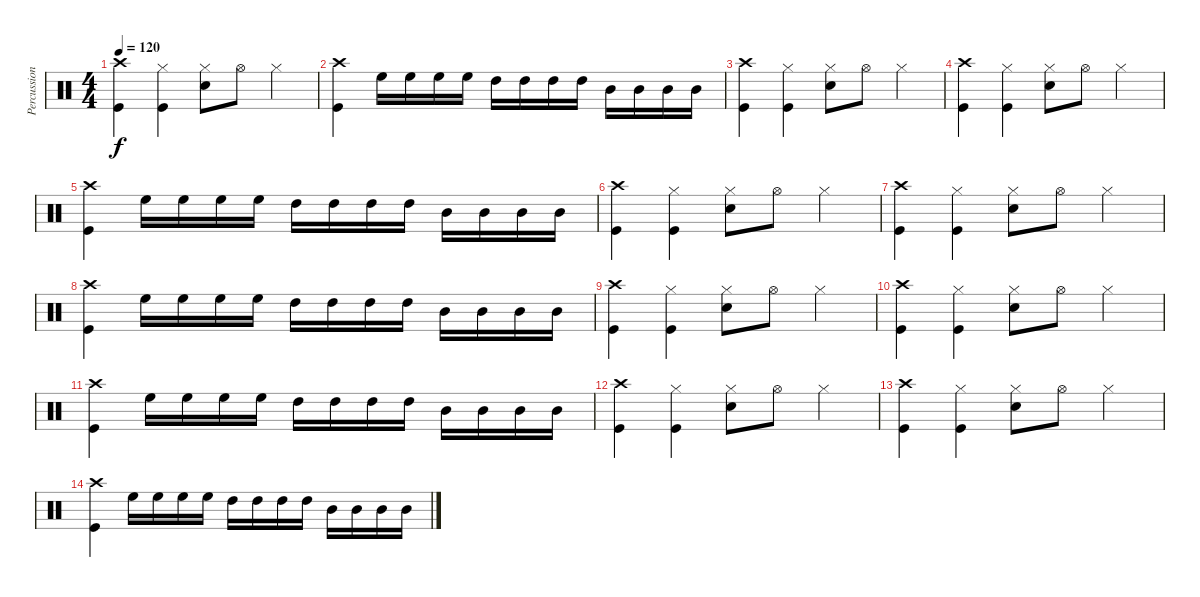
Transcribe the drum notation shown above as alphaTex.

\track ("Percussion" "Percussion") {instrument percussion}
\staff {score}
\articulation defaults
\ts (4 4)
\tempo 120
\clef neutral
\ks c
("Crash high (hit)" "Kick (hit)").4{dy f} ("Hi-Hat (closed)" "Kick (hit)").4 ("Hi-Hat (closed)" "Snare (hit) 2").8 "Hi-Hat (open)".8 "Hi-Hat (closed)".4 |
("Crash high (hit)" "Kick (hit)").4 "High Floor Tom (hit)".16 "High Floor Tom (hit)".16 "High Floor Tom (hit)".16 "High Floor Tom (hit)".16 "High Tom (hit)".16 "High Tom (hit)".16 "High Tom (hit)".16 "High Tom (hit)".16 "Mid Tom (hit)".16 "Mid Tom (hit)".16 "Mid Tom (hit)".16 "Mid Tom (hit)".16 |
("Crash high (hit)" "Kick (hit)").4 ("Hi-Hat (closed)" "Kick (hit)").4 ("Hi-Hat (closed)" "Snare (hit) 2").8 "Hi-Hat (open)".8 "Hi-Hat (closed)".4 |
("Crash high (hit)" "Kick (hit)").4 ("Hi-Hat (closed)" "Kick (hit)").4 ("Hi-Hat (closed)" "Snare (hit) 2").8 "Hi-Hat (open)".8 "Hi-Hat (closed)".4 |
("Crash high (hit)" "Kick (hit)").4 "High Floor Tom (hit)".16 "High Floor Tom (hit)".16 "High Floor Tom (hit)".16 "High Floor Tom (hit)".16 "High Tom (hit)".16 "High Tom (hit)".16 "High Tom (hit)".16 "High Tom (hit)".16 "Mid Tom (hit)".16 "Mid Tom (hit)".16 "Mid Tom (hit)".16 "Mid Tom (hit)".16 |
("Crash high (hit)" "Kick (hit)").4 ("Hi-Hat (closed)" "Kick (hit)").4 ("Hi-Hat (closed)" "Snare (hit) 2").8 "Hi-Hat (open)".8 "Hi-Hat (closed)".4 |
("Crash high (hit)" "Kick (hit)").4 ("Hi-Hat (closed)" "Kick (hit)").4 ("Hi-Hat (closed)" "Snare (hit) 2").8 "Hi-Hat (open)".8 "Hi-Hat (closed)".4 |
("Crash high (hit)" "Kick (hit)").4 "High Floor Tom (hit)".16 "High Floor Tom (hit)".16 "High Floor Tom (hit)".16 "High Floor Tom (hit)".16 "High Tom (hit)".16 "High Tom (hit)".16 "High Tom (hit)".16 "High Tom (hit)".16 "Mid Tom (hit)".16 "Mid Tom (hit)".16 "Mid Tom (hit)".16 "Mid Tom (hit)".16 |
("Crash high (hit)" "Kick (hit)").4 ("Hi-Hat (closed)" "Kick (hit)").4 ("Hi-Hat (closed)" "Snare (hit) 2").8 "Hi-Hat (open)".8 "Hi-Hat (closed)".4 |
("Crash high (hit)" "Kick (hit)").4 ("Hi-Hat (closed)" "Kick (hit)").4 ("Hi-Hat (closed)" "Snare (hit) 2").8 "Hi-Hat (open)".8 "Hi-Hat (closed)".4 |
("Crash high (hit)" "Kick (hit)").4 "High Floor Tom (hit)".16 "High Floor Tom (hit)".16 "High Floor Tom (hit)".16 "High Floor Tom (hit)".16 "High Tom (hit)".16 "High Tom (hit)".16 "High Tom (hit)".16 "High Tom (hit)".16 "Mid Tom (hit)".16 "Mid Tom (hit)".16 "Mid Tom (hit)".16 "Mid Tom (hit)".16 |
("Crash high (hit)" "Kick (hit)").4 ("Hi-Hat (closed)" "Kick (hit)").4 ("Hi-Hat (closed)" "Snare (hit) 2").8 "Hi-Hat (open)".8 "Hi-Hat (closed)".4 |
("Crash high (hit)" "Kick (hit)").4 ("Hi-Hat (closed)" "Kick (hit)").4 ("Hi-Hat (closed)" "Snare (hit) 2").8 "Hi-Hat (open)".8 "Hi-Hat (closed)".4 |
("Crash high (hit)" "Kick (hit)").4 "High Floor Tom (hit)".16 "High Floor Tom (hit)".16 "High Floor Tom (hit)".16 "High Floor Tom (hit)".16 "High Tom (hit)".16 "High Tom (hit)".16 "High Tom (hit)".16 "High Tom (hit)".16 "Mid Tom (hit)".16 "Mid Tom (hit)".16 "Mid Tom (hit)".16 "Mid Tom (hit)".16
